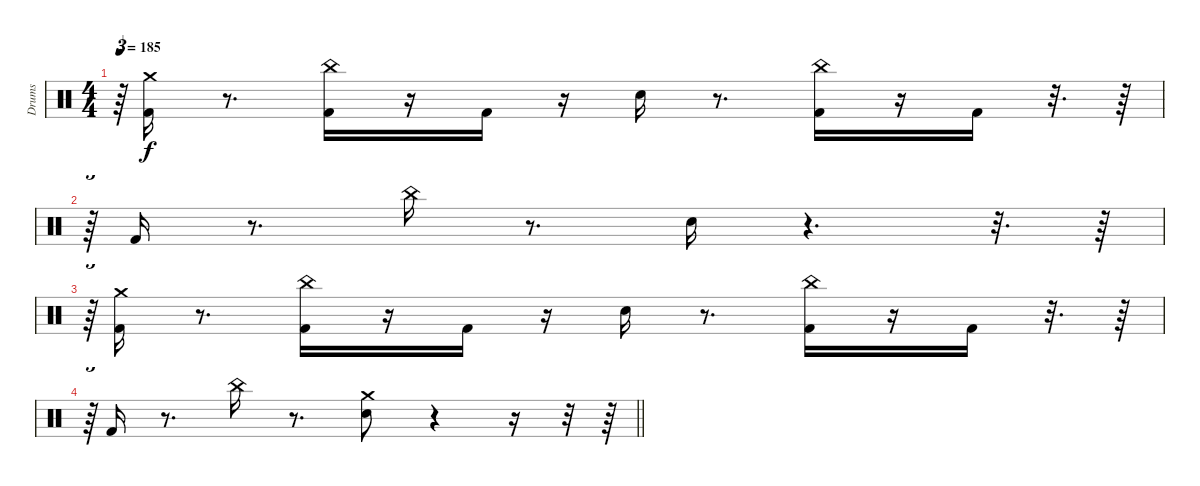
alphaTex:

\track ("Drums" "Drums") {instrument percussion}
\staff {score}
\articulation defaults
\ts (4 4)
\tempo 185
\clef neutral
\ks c
r.64{tu (3 2) dy f} ("Crash medium (hit)" "Kick (hit) 2").16 r.8{d} ("Kick (hit) 2" "China (hit)").16 r.16 "Kick (hit) 2".16 r.16 "Electric Snare (hit)".16 r.8{d} ("Kick (hit) 2" "China (hit)").16 r.16 "Kick (hit) 2".16 r.32{d} r.64 |
r.64{tu (3 2)} "Kick (hit) 2".16 r.8{d} "China (hit)".16 r.8{d} "Electric Snare (hit)".16 r.4{d} r.32{d} r.64 |
r.64{tu (3 2)} ("Kick (hit) 2" "Crash medium (hit)").16 r.8{d} ("Kick (hit) 2" "China (hit)").16 r.16 "Kick (hit) 2".16 r.16 "Electric Snare (hit)".16 r.8{d} ("China (hit)" "Kick (hit) 2").16 r.16 "Kick (hit) 2".16 r.32{d} r.64 |
\barLineRight lightlight
r.64{tu (3 2)} "Kick (hit) 2".16 r.8{d} "China (hit)".16 r.8{d} ("Electric Snare (hit)" "Crash medium (hit)").8 r.4 r.16 r.32 r.64
